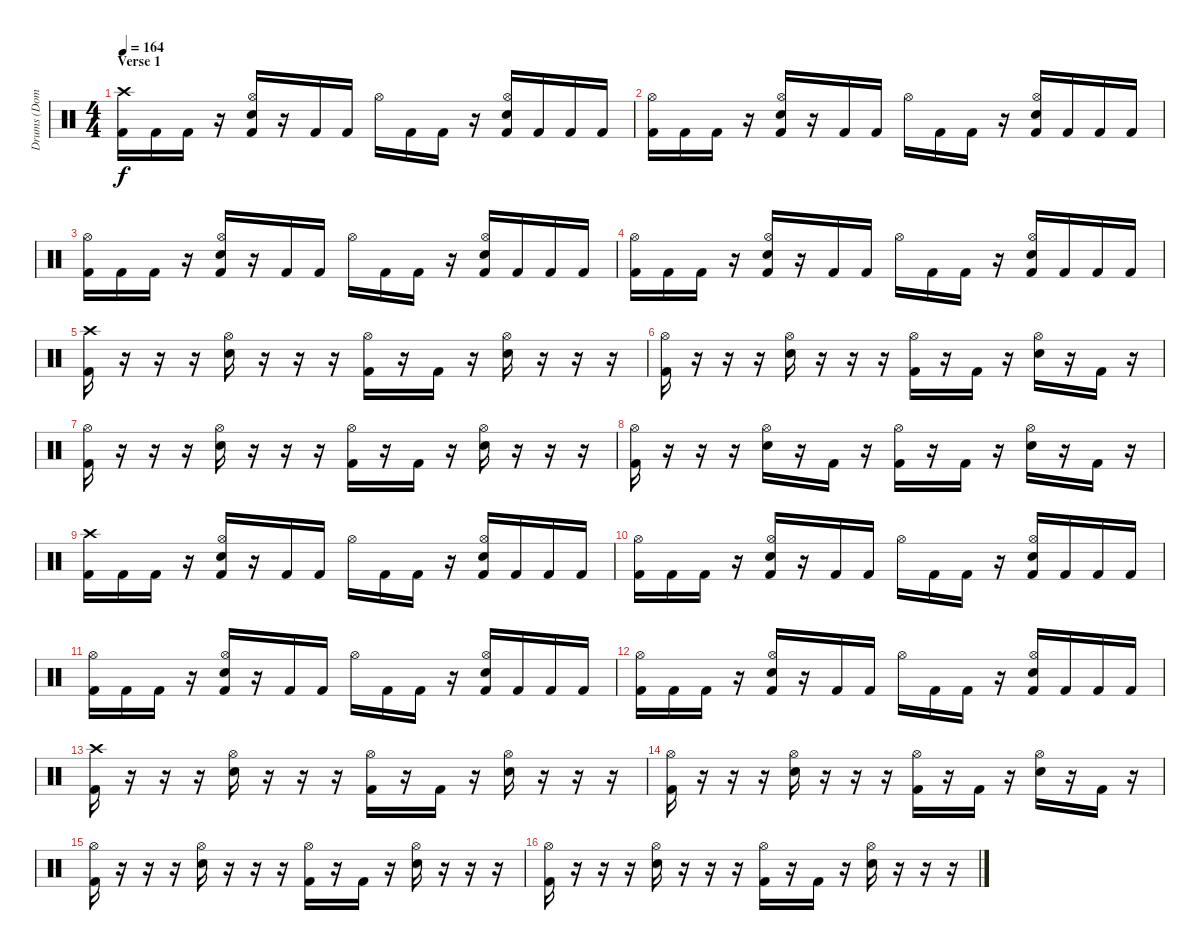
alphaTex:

\track ("Drums (Dominik)" "Drums (Dom") {instrument percussion}
\staff {score}
\articulation defaults
\ts (4 4)
\section ("" "Verse 1")
\tempo 164
\clef neutral
\ks c
("Crash high (hit)" "Kick (hit) 2").16{dy f} "Kick (hit) 2".16 "Kick (hit) 2".16 r.16 ("Hi-Hat (open)" "Electric Snare (hit)" "Kick (hit) 2").16 r.16 "Kick (hit) 2".16 "Kick (hit) 2".16 "Hi-Hat (open)".16 "Kick (hit) 2".16 "Kick (hit) 2".16 r.16 ("Hi-Hat (open)" "Electric Snare (hit)" "Kick (hit) 2").16 "Kick (hit) 2".16 "Kick (hit) 2".16 "Kick (hit) 2".16 |
("Hi-Hat (open)" "Kick (hit) 2").16 "Kick (hit) 2".16 "Kick (hit) 2".16 r.16 ("Hi-Hat (open)" "Electric Snare (hit)" "Kick (hit) 2").16 r.16 "Kick (hit) 2".16 "Kick (hit) 2".16 "Hi-Hat (open)".16 "Kick (hit) 2".16 "Kick (hit) 2".16 r.16 ("Hi-Hat (open)" "Electric Snare (hit)" "Kick (hit) 2").16 "Kick (hit) 2".16 "Kick (hit) 2".16 "Kick (hit) 2".16 |
("Hi-Hat (open)" "Kick (hit) 2").16 "Kick (hit) 2".16 "Kick (hit) 2".16 r.16 ("Hi-Hat (open)" "Electric Snare (hit)" "Kick (hit) 2").16 r.16 "Kick (hit) 2".16 "Kick (hit) 2".16 "Hi-Hat (open)".16 "Kick (hit) 2".16 "Kick (hit) 2".16 r.16 ("Hi-Hat (open)" "Electric Snare (hit)" "Kick (hit) 2").16 "Kick (hit) 2".16 "Kick (hit) 2".16 "Kick (hit) 2".16 |
("Hi-Hat (open)" "Kick (hit) 2").16 "Kick (hit) 2".16 "Kick (hit) 2".16 r.16 ("Hi-Hat (open)" "Electric Snare (hit)" "Kick (hit) 2").16 r.16 "Kick (hit) 2".16 "Kick (hit) 2".16 "Hi-Hat (open)".16 "Kick (hit) 2".16 "Kick (hit) 2".16 r.16 ("Hi-Hat (open)" "Electric Snare (hit)" "Kick (hit) 2").16 "Kick (hit) 2".16 "Kick (hit) 2".16 "Kick (hit) 2".16 |
("Crash high (hit)" "Kick (hit) 2").16 r.16 r.16 r.16 ("Hi-Hat (open)" "Electric Snare (hit)").16 r.16 r.16 r.16 ("Hi-Hat (open)" "Kick (hit) 2").16 r.16 "Kick (hit) 2".16 r.16 ("Hi-Hat (open)" "Electric Snare (hit)").16 r.16 r.16 r.16 |
("Hi-Hat (open)" "Kick (hit) 2").16 r.16 r.16 r.16 ("Hi-Hat (open)" "Electric Snare (hit)").16 r.16 r.16 r.16 ("Hi-Hat (open)" "Kick (hit) 2").16 r.16 "Kick (hit) 2".16 r.16 ("Hi-Hat (open)" "Electric Snare (hit)").16 r.16 "Kick (hit) 2".16 r.16 |
("Hi-Hat (open)" "Kick (hit) 2").16 r.16 r.16 r.16 ("Hi-Hat (open)" "Electric Snare (hit)").16 r.16 r.16 r.16 ("Hi-Hat (open)" "Kick (hit) 2").16 r.16 "Kick (hit) 2".16 r.16 ("Hi-Hat (open)" "Electric Snare (hit)").16 r.16 r.16 r.16 |
("Hi-Hat (open)" "Kick (hit) 2").16 r.16 r.16 r.16 ("Hi-Hat (open)" "Electric Snare (hit)").16 r.16 "Kick (hit) 2".16 r.16 ("Hi-Hat (open)" "Kick (hit) 2").16 r.16 "Kick (hit) 2".16 r.16 ("Hi-Hat (open)" "Electric Snare (hit)").16 r.16 "Kick (hit) 2".16 r.16 |
("Crash high (hit)" "Kick (hit) 2").16 "Kick (hit) 2".16 "Kick (hit) 2".16 r.16 ("Hi-Hat (open)" "Electric Snare (hit)" "Kick (hit) 2").16 r.16 "Kick (hit) 2".16 "Kick (hit) 2".16 "Hi-Hat (open)".16 "Kick (hit) 2".16 "Kick (hit) 2".16 r.16 ("Hi-Hat (open)" "Electric Snare (hit)" "Kick (hit) 2").16 "Kick (hit) 2".16 "Kick (hit) 2".16 "Kick (hit) 2".16 |
("Hi-Hat (open)" "Kick (hit) 2").16 "Kick (hit) 2".16 "Kick (hit) 2".16 r.16 ("Hi-Hat (open)" "Electric Snare (hit)" "Kick (hit) 2").16 r.16 "Kick (hit) 2".16 "Kick (hit) 2".16 "Hi-Hat (open)".16 "Kick (hit) 2".16 "Kick (hit) 2".16 r.16 ("Hi-Hat (open)" "Electric Snare (hit)" "Kick (hit) 2").16 "Kick (hit) 2".16 "Kick (hit) 2".16 "Kick (hit) 2".16 |
("Hi-Hat (open)" "Kick (hit) 2").16 "Kick (hit) 2".16 "Kick (hit) 2".16 r.16 ("Hi-Hat (open)" "Electric Snare (hit)" "Kick (hit) 2").16 r.16 "Kick (hit) 2".16 "Kick (hit) 2".16 "Hi-Hat (open)".16 "Kick (hit) 2".16 "Kick (hit) 2".16 r.16 ("Hi-Hat (open)" "Electric Snare (hit)" "Kick (hit) 2").16 "Kick (hit) 2".16 "Kick (hit) 2".16 "Kick (hit) 2".16 |
("Hi-Hat (open)" "Kick (hit) 2").16 "Kick (hit) 2".16 "Kick (hit) 2".16 r.16 ("Hi-Hat (open)" "Electric Snare (hit)" "Kick (hit) 2").16 r.16 "Kick (hit) 2".16 "Kick (hit) 2".16 "Hi-Hat (open)".16 "Kick (hit) 2".16 "Kick (hit) 2".16 r.16 ("Hi-Hat (open)" "Electric Snare (hit)" "Kick (hit) 2").16 "Kick (hit) 2".16 "Kick (hit) 2".16 "Kick (hit) 2".16 |
("Crash high (hit)" "Kick (hit) 2").16 r.16 r.16 r.16 ("Hi-Hat (open)" "Electric Snare (hit)").16 r.16 r.16 r.16 ("Hi-Hat (open)" "Kick (hit) 2").16 r.16 "Kick (hit) 2".16 r.16 ("Hi-Hat (open)" "Electric Snare (hit)").16 r.16 r.16 r.16 |
("Hi-Hat (open)" "Kick (hit) 2").16 r.16 r.16 r.16 ("Hi-Hat (open)" "Electric Snare (hit)").16 r.16 r.16 r.16 ("Hi-Hat (open)" "Kick (hit) 2").16 r.16 "Kick (hit) 2".16 r.16 ("Hi-Hat (open)" "Electric Snare (hit)").16 r.16 "Kick (hit) 2".16 r.16 |
("Hi-Hat (open)" "Kick (hit) 2").16 r.16 r.16 r.16 ("Hi-Hat (open)" "Electric Snare (hit)").16 r.16 r.16 r.16 ("Hi-Hat (open)" "Kick (hit) 2").16 r.16 "Kick (hit) 2".16 r.16 ("Hi-Hat (open)" "Electric Snare (hit)").16 r.16 r.16 r.16 |
("Hi-Hat (open)" "Kick (hit) 2").16 r.16 r.16 r.16 ("Hi-Hat (open)" "Electric Snare (hit)").16 r.16 r.16 r.16 ("Hi-Hat (open)" "Kick (hit) 2").16 r.16 "Kick (hit) 2".16 r.16 ("Hi-Hat (open)" "Electric Snare (hit)").16 r.16 r.16 r.16
